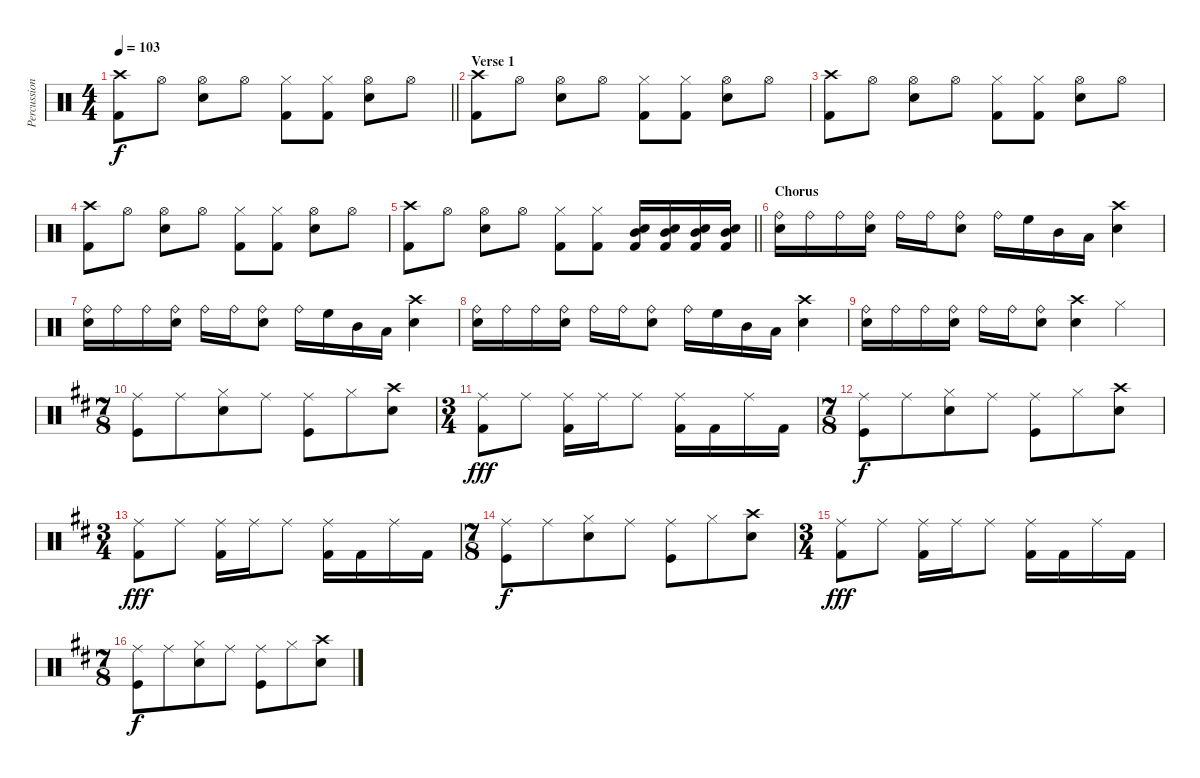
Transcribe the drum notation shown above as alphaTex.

\track ("Percussion" "Percussion") {instrument percussion}
\staff {score}
\articulation defaults
\ts (4 4)
\tempo 103
\clef neutral
\barLineRight lightlight
\ks c
("Crash high (hit)" "Kick (hit) 2").8{dy f} "Hi-Hat (open)".8 ("Hi-Hat (open)" "Snare (hit) 2").8 "Hi-Hat (open)".8 ("Hi-Hat (closed)" "Kick (hit) 2").8 ("Hi-Hat (closed)" "Kick (hit) 2").8 ("Hi-Hat (open)" "Snare (hit) 2").8 "Hi-Hat (open)".8 |
\section ("" "Verse 1")
("Crash high (hit)" "Kick (hit) 2").8 "Hi-Hat (open)".8 ("Hi-Hat (open)" "Snare (hit) 2").8 "Hi-Hat (open)".8 ("Hi-Hat (closed)" "Kick (hit) 2").8 ("Hi-Hat (closed)" "Kick (hit) 2").8 ("Hi-Hat (open)" "Snare (hit) 2").8 "Hi-Hat (open)".8 |
("Crash high (hit)" "Kick (hit) 2").8 "Hi-Hat (open)".8 ("Hi-Hat (open)" "Snare (hit) 2").8 "Hi-Hat (open)".8 ("Hi-Hat (closed)" "Kick (hit) 2").8 ("Hi-Hat (closed)" "Kick (hit) 2").8 ("Hi-Hat (open)" "Snare (hit) 2").8 "Hi-Hat (open)".8 |
("Crash high (hit)" "Kick (hit) 2").8 "Hi-Hat (open)".8 ("Hi-Hat (open)" "Snare (hit) 2").8 "Hi-Hat (open)".8 ("Hi-Hat (closed)" "Kick (hit) 2").8 ("Hi-Hat (closed)" "Kick (hit) 2").8 ("Hi-Hat (open)" "Snare (hit) 2").8 "Hi-Hat (open)".8 |
\barLineRight lightlight
("Crash high (hit)" "Kick (hit) 2").8 "Hi-Hat (open)".8 ("Hi-Hat (open)" "Snare (hit) 2").8 "Hi-Hat (open)".8 ("Hi-Hat (closed)" "Kick (hit) 2").8 ("Hi-Hat (closed)" "Kick (hit) 2").8 ("Kick (hit) 2" "Snare (hit) 2" "Mid Tom (hit)").16 ("Kick (hit) 2" "Snare (hit) 2" "Mid Tom (hit)").16 ("Kick (hit) 2" "Snare (hit) 2" "Mid Tom (hit)").16 ("Kick (hit) 2" "Snare (hit) 2" "Mid Tom (hit)").16 |
\section ("" "Chorus")
("Ride (bell)" "Snare (hit) 2").16 "Ride (bell)".16 "Ride (bell)".16 ("Ride (bell)" "Snare (hit) 2").16 "Ride (bell)".16 "Ride (bell)".16 ("Ride (bell)" "Snare (hit) 2").8 "Ride (bell)".16 "High Floor Tom (hit)".16 "Mid Tom (hit)".16 "Low Floor Tom (hit)".16 ("Crash high (hit)" "Snare (hit) 2").4 |
("Ride (bell)" "Snare (hit) 2").16 "Ride (bell)".16 "Ride (bell)".16 ("Ride (bell)" "Snare (hit) 2").16 "Ride (bell)".16 "Ride (bell)".16 ("Ride (bell)" "Snare (hit) 2").8 "Ride (bell)".16 "High Floor Tom (hit)".16 "Mid Tom (hit)".16 "Low Floor Tom (hit)".16 ("Crash high (hit)" "Snare (hit) 2").4 |
("Ride (bell)" "Snare (hit) 2").16 "Ride (bell)".16 "Ride (bell)".16 ("Ride (bell)" "Snare (hit) 2").16 "Ride (bell)".16 "Ride (bell)".16 ("Ride (bell)" "Snare (hit) 2").8 "Ride (bell)".16 "High Floor Tom (hit)".16 "Mid Tom (hit)".16 "Low Floor Tom (hit)".16 ("Crash high (hit)" "Snare (hit) 2").4 |
("Ride (bell)" "Snare (hit) 2").16 "Ride (bell)".16 "Ride (bell)".16 ("Ride (bell)" "Snare (hit) 2").16 "Ride (bell)".16 "Ride (bell)".16 ("Ride (bell)" "Snare (hit) 2").8 ("Crash high (hit)" "Snare (hit) 2").4 "Hi-Hat (closed)".4 |
\ts (7 8)
\ks d
("Ride (middle)" "Kick (hit)").8 "Ride (middle)".8 ("Hi-Hat (closed)" "Snare (hit) 2").8 "Ride (middle)".8 ("Ride (middle)" "Kick (hit)").8 "Hi-Hat (closed)".8 ("Crash high (hit)" "Snare (hit) 2").8 |
\ts (3 4)
("Ride (middle)" "Kick (hit) 2").8{dy fff} "Ride (middle)".8 ("Ride (middle)" "Kick (hit) 2").16 "Ride (middle)".16 "Ride (middle)".8 ("Ride (middle)" "Kick (hit) 2").16 "Kick (hit) 2".16 "Ride (middle)".16 "Kick (hit) 2".16 |
\ts (7 8)
("Ride (middle)" "Kick (hit)").8{dy f} "Ride (middle)".8 ("Hi-Hat (closed)" "Snare (hit) 2").8 "Ride (middle)".8 ("Ride (middle)" "Kick (hit)").8 "Hi-Hat (closed)".8 ("Crash high (hit)" "Snare (hit) 2").8 |
\ts (3 4)
("Ride (middle)" "Kick (hit) 2").8{dy fff} "Ride (middle)".8 ("Ride (middle)" "Kick (hit) 2").16 "Ride (middle)".16 "Ride (middle)".8 ("Ride (middle)" "Kick (hit) 2").16 "Kick (hit) 2".16 "Ride (middle)".16 "Kick (hit) 2".16 |
\ts (7 8)
("Ride (middle)" "Kick (hit)").8{dy f} "Ride (middle)".8 ("Hi-Hat (closed)" "Snare (hit) 2").8 "Ride (middle)".8 ("Ride (middle)" "Kick (hit)").8 "Hi-Hat (closed)".8 ("Crash high (hit)" "Snare (hit) 2").8 |
\ts (3 4)
("Ride (middle)" "Kick (hit) 2").8{dy fff} "Ride (middle)".8 ("Ride (middle)" "Kick (hit) 2").16 "Ride (middle)".16 "Ride (middle)".8 ("Ride (middle)" "Kick (hit) 2").16 "Kick (hit) 2".16 "Ride (middle)".16 "Kick (hit) 2".16 |
\ts (7 8)
("Ride (middle)" "Kick (hit)").8{dy f} "Ride (middle)".8 ("Hi-Hat (closed)" "Snare (hit) 2").8 "Ride (middle)".8 ("Ride (middle)" "Kick (hit)").8 "Hi-Hat (closed)".8 ("Crash high (hit)" "Snare (hit) 2").8
